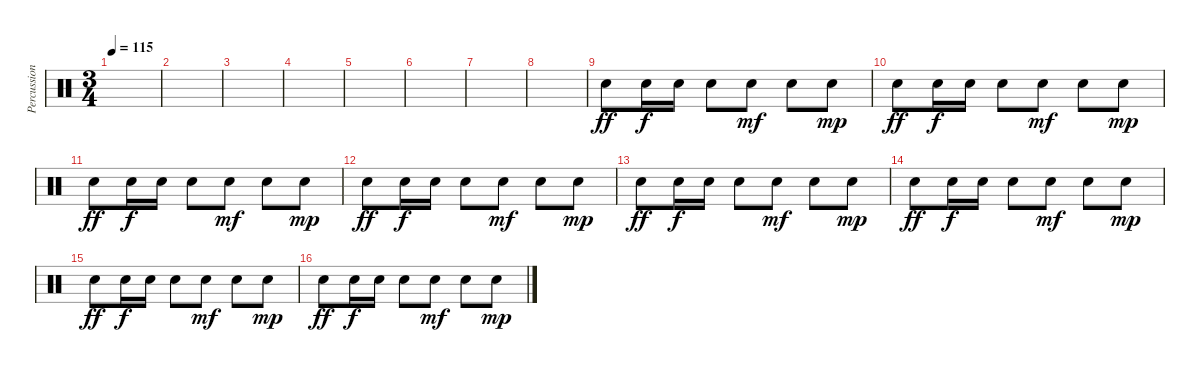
\track ("Percussion 2" "Percussion") {instrument percussion}
\staff {score}
\articulation defaults
\ts (3 4)
\tempo 115
\clef neutral
\ks c
|
|
|
|
|
|
|
|
"Electric Snare (hit)".8{dy ff} "Electric Snare (hit)".16{dy f} "Electric Snare (hit)".16 "Electric Snare (hit)".8 "Electric Snare (hit)".8{dy mf} "Electric Snare (hit)".8 "Electric Snare (hit)".8{dy mp} |
"Electric Snare (hit)".8{dy ff} "Electric Snare (hit)".16{dy f} "Electric Snare (hit)".16 "Electric Snare (hit)".8 "Electric Snare (hit)".8{dy mf} "Electric Snare (hit)".8 "Electric Snare (hit)".8{dy mp} |
"Electric Snare (hit)".8{dy ff} "Electric Snare (hit)".16{dy f} "Electric Snare (hit)".16 "Electric Snare (hit)".8 "Electric Snare (hit)".8{dy mf} "Electric Snare (hit)".8 "Electric Snare (hit)".8{dy mp} |
"Electric Snare (hit)".8{dy ff} "Electric Snare (hit)".16{dy f} "Electric Snare (hit)".16 "Electric Snare (hit)".8 "Electric Snare (hit)".8{dy mf} "Electric Snare (hit)".8 "Electric Snare (hit)".8{dy mp} |
"Electric Snare (hit)".8{dy ff} "Electric Snare (hit)".16{dy f} "Electric Snare (hit)".16 "Electric Snare (hit)".8 "Electric Snare (hit)".8{dy mf} "Electric Snare (hit)".8 "Electric Snare (hit)".8{dy mp} |
"Electric Snare (hit)".8{dy ff} "Electric Snare (hit)".16{dy f} "Electric Snare (hit)".16 "Electric Snare (hit)".8 "Electric Snare (hit)".8{dy mf} "Electric Snare (hit)".8 "Electric Snare (hit)".8{dy mp} |
"Electric Snare (hit)".8{dy ff} "Electric Snare (hit)".16{dy f} "Electric Snare (hit)".16 "Electric Snare (hit)".8 "Electric Snare (hit)".8{dy mf} "Electric Snare (hit)".8 "Electric Snare (hit)".8{dy mp} |
"Electric Snare (hit)".8{dy ff} "Electric Snare (hit)".16{dy f} "Electric Snare (hit)".16 "Electric Snare (hit)".8 "Electric Snare (hit)".8{dy mf} "Electric Snare (hit)".8 "Electric Snare (hit)".8{dy mp}
